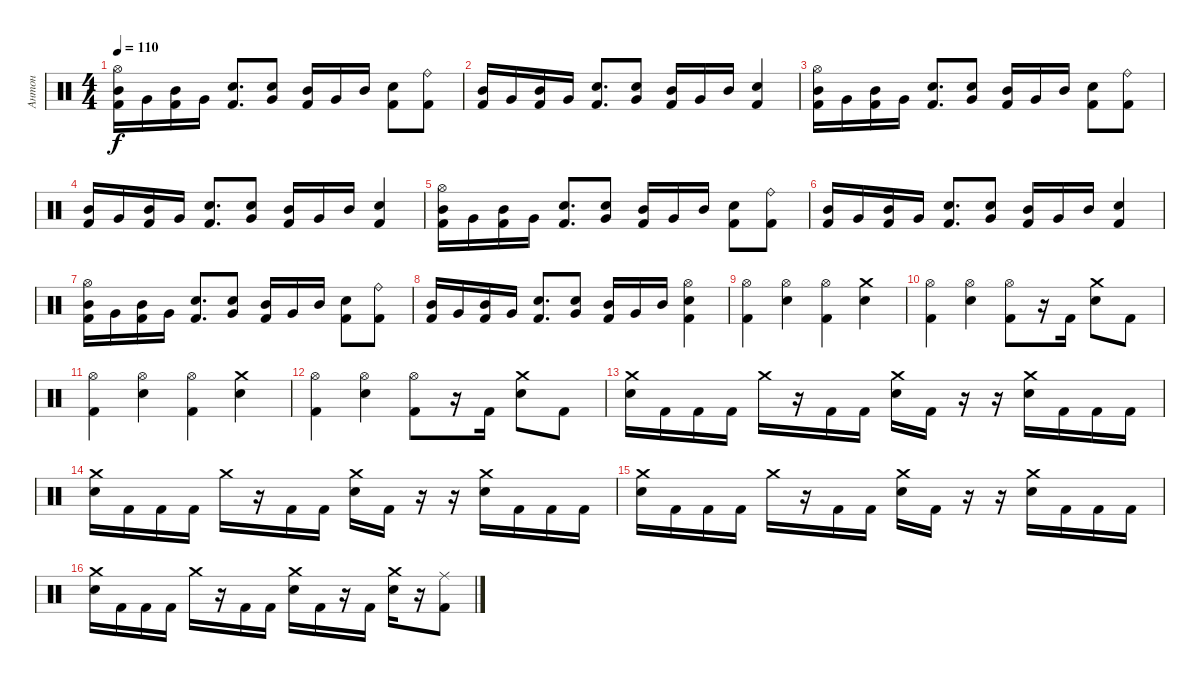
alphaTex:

\track ("Антон" "Антон") {instrument percussion}
\staff {score}
\articulation defaults
\ts (4 4)
\tempo 110
\clef neutral
\ks c
("Hi-Hat (open)" "Mid Tom (hit)" "Kick (hit) 2").16{dy f} "Very Low Tom (hit)".16 ("Mid Tom (hit)" "Kick (hit) 2").16 "Very Low Tom (hit)".16 ("Electric Snare (hit)" "Kick (hit) 2").8{d} ("Very Low Tom (hit)" "Electric Snare (hit)").8 ("Mid Tom (hit)" "Kick (hit) 2").16 "Very Low Tom (hit)".16 "Mid Tom (hit)".16 ("Electric Snare (hit)" "Kick (hit) 2").8 ("Ride (bell)" "Kick (hit) 2").8 |
("Mid Tom (hit)" "Kick (hit) 2").16 "Very Low Tom (hit)".16 ("Mid Tom (hit)" "Kick (hit) 2").16 "Very Low Tom (hit)".16 ("Electric Snare (hit)" "Kick (hit) 2").8{d} ("Very Low Tom (hit)" "Electric Snare (hit)").8 ("Mid Tom (hit)" "Kick (hit) 2").16 "Very Low Tom (hit)".16 "Mid Tom (hit)".16 ("Electric Snare (hit)" "Kick (hit) 2").4 |
("Hi-Hat (open)" "Mid Tom (hit)" "Kick (hit) 2").16 "Very Low Tom (hit)".16 ("Mid Tom (hit)" "Kick (hit) 2").16 "Very Low Tom (hit)".16 ("Electric Snare (hit)" "Kick (hit) 2").8{d} ("Very Low Tom (hit)" "Electric Snare (hit)").8 ("Mid Tom (hit)" "Kick (hit) 2").16 "Very Low Tom (hit)".16 "Mid Tom (hit)".16 ("Electric Snare (hit)" "Kick (hit) 2").8 ("Ride (bell)" "Kick (hit) 2").8 |
("Mid Tom (hit)" "Kick (hit) 2").16 "Very Low Tom (hit)".16 ("Mid Tom (hit)" "Kick (hit) 2").16 "Very Low Tom (hit)".16 ("Electric Snare (hit)" "Kick (hit) 2").8{d} ("Very Low Tom (hit)" "Electric Snare (hit)").8 ("Mid Tom (hit)" "Kick (hit) 2").16 "Very Low Tom (hit)".16 "Mid Tom (hit)".16 ("Electric Snare (hit)" "Kick (hit) 2").4 |
("Hi-Hat (open)" "Mid Tom (hit)" "Kick (hit) 2").16 "Very Low Tom (hit)".16 ("Mid Tom (hit)" "Kick (hit) 2").16 "Very Low Tom (hit)".16 ("Electric Snare (hit)" "Kick (hit) 2").8{d} ("Very Low Tom (hit)" "Electric Snare (hit)").8 ("Mid Tom (hit)" "Kick (hit) 2").16 "Very Low Tom (hit)".16 "Mid Tom (hit)".16 ("Electric Snare (hit)" "Kick (hit) 2").8 ("Ride (bell)" "Kick (hit) 2").8 |
("Mid Tom (hit)" "Kick (hit) 2").16 "Very Low Tom (hit)".16 ("Mid Tom (hit)" "Kick (hit) 2").16 "Very Low Tom (hit)".16 ("Electric Snare (hit)" "Kick (hit) 2").8{d} ("Very Low Tom (hit)" "Electric Snare (hit)").8 ("Mid Tom (hit)" "Kick (hit) 2").16 "Very Low Tom (hit)".16 "Mid Tom (hit)".16 ("Electric Snare (hit)" "Kick (hit) 2").4 |
("Hi-Hat (open)" "Mid Tom (hit)" "Kick (hit) 2").16 "Very Low Tom (hit)".16 ("Mid Tom (hit)" "Kick (hit) 2").16 "Very Low Tom (hit)".16 ("Electric Snare (hit)" "Kick (hit) 2").8{d} ("Very Low Tom (hit)" "Electric Snare (hit)").8 ("Mid Tom (hit)" "Kick (hit) 2").16 "Very Low Tom (hit)".16 "Mid Tom (hit)".16 ("Electric Snare (hit)" "Kick (hit) 2").8 ("Ride (bell)" "Kick (hit) 2").8 |
("Mid Tom (hit)" "Kick (hit) 2").16 "Very Low Tom (hit)".16 ("Mid Tom (hit)" "Kick (hit) 2").16 "Very Low Tom (hit)".16 ("Electric Snare (hit)" "Kick (hit) 2").8{d} ("Very Low Tom (hit)" "Electric Snare (hit)").8 ("Mid Tom (hit)" "Kick (hit) 2").16 "Very Low Tom (hit)".16 "Mid Tom (hit)".16 ("Hi-Hat (open)" "Electric Snare (hit)" "Kick (hit) 2").4 |
("Hi-Hat (open)" "Kick (hit) 2").4 ("Hi-Hat (open)" "Electric Snare (hit)").4 ("Hi-Hat (open)" "Kick (hit) 2").4 ("Crash medium (hit)" "Electric Snare (hit)").4 |
("Hi-Hat (open)" "Kick (hit) 2").4 ("Hi-Hat (open)" "Electric Snare (hit)").4 ("Hi-Hat (open)" "Kick (hit) 2").8 r.16 "Kick (hit) 2".16 ("Crash medium (hit)" "Electric Snare (hit)").8 "Kick (hit) 2".8 |
("Hi-Hat (open)" "Kick (hit) 2").4 ("Hi-Hat (open)" "Electric Snare (hit)").4 ("Hi-Hat (open)" "Kick (hit) 2").4 ("Crash medium (hit)" "Electric Snare (hit)").4 |
("Hi-Hat (open)" "Kick (hit) 2").4 ("Hi-Hat (open)" "Electric Snare (hit)").4 ("Hi-Hat (open)" "Kick (hit) 2").8 r.16 "Kick (hit) 2".16 ("Crash medium (hit)" "Electric Snare (hit)").8 "Kick (hit) 2".8 |
("Crash medium (hit)" "Electric Snare (hit)").16 "Kick (hit) 2".16 "Kick (hit) 2".16 "Kick (hit) 2".16 "Crash medium (hit)".16 r.16 "Kick (hit) 2".16 "Kick (hit) 2".16 ("Crash medium (hit)" "Electric Snare (hit)").16 "Kick (hit) 2".16 r.16 r.16 ("Crash medium (hit)" "Electric Snare (hit)").16 "Kick (hit) 2".16 "Kick (hit) 2".16 "Kick (hit) 2".16 |
("Crash medium (hit)" "Electric Snare (hit)").16 "Kick (hit) 2".16 "Kick (hit) 2".16 "Kick (hit) 2".16 "Crash medium (hit)".16 r.16 "Kick (hit) 2".16 "Kick (hit) 2".16 ("Crash medium (hit)" "Electric Snare (hit)").16 "Kick (hit) 2".16 r.16 r.16 ("Crash medium (hit)" "Electric Snare (hit)").16 "Kick (hit) 2".16 "Kick (hit) 2".16 "Kick (hit) 2".16 |
("Crash medium (hit)" "Electric Snare (hit)").16 "Kick (hit) 2".16 "Kick (hit) 2".16 "Kick (hit) 2".16 "Crash medium (hit)".16 r.16 "Kick (hit) 2".16 "Kick (hit) 2".16 ("Crash medium (hit)" "Electric Snare (hit)").16 "Kick (hit) 2".16 r.16 r.16 ("Crash medium (hit)" "Electric Snare (hit)").16 "Kick (hit) 2".16 "Kick (hit) 2".16 "Kick (hit) 2".16 |
("Crash medium (hit)" "Electric Snare (hit)").16 "Kick (hit) 2".16 "Kick (hit) 2".16 "Kick (hit) 2".16 "Crash medium (hit)".16 r.16 "Kick (hit) 2".16 "Kick (hit) 2".16 ("Crash medium (hit)" "Electric Snare (hit)").16 "Kick (hit) 2".16 r.16 "Kick (hit) 2".16 ("Crash medium (hit)" "Electric Snare (hit)").16 r.16 ("Ride (middle)" "Kick (hit) 2").8
